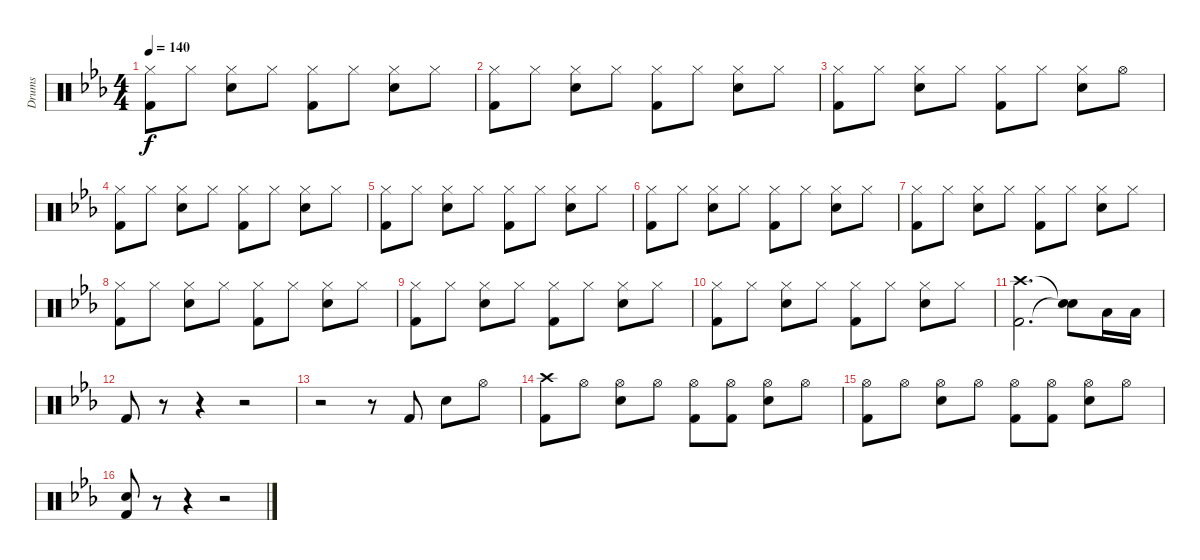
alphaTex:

\track ("Drums" "Drums") {instrument percussion}
\staff {score}
\articulation defaults
\ts (4 4)
\tempo 140
\clef neutral
\ks eb
("Hi-Hat (closed)" "Kick (hit) 2").8{dy f} "Hi-Hat (closed)".8 ("Hi-Hat (closed)" "Snare (hit) 2").8 "Hi-Hat (closed)".8 ("Hi-Hat (closed)" "Kick (hit) 2").8 "Hi-Hat (closed)".8 ("Hi-Hat (closed)" "Snare (hit) 2").8 "Hi-Hat (closed)".8 |
("Hi-Hat (closed)" "Kick (hit) 2").8 "Hi-Hat (closed)".8 ("Hi-Hat (closed)" "Snare (hit) 2").8 "Hi-Hat (closed)".8 ("Hi-Hat (closed)" "Kick (hit) 2").8 "Hi-Hat (closed)".8 ("Hi-Hat (closed)" "Snare (hit) 2").8 "Hi-Hat (closed)".8 |
("Hi-Hat (closed)" "Kick (hit) 2").8 "Hi-Hat (closed)".8 ("Hi-Hat (closed)" "Snare (hit) 2").8 "Hi-Hat (closed)".8 ("Hi-Hat (closed)" "Kick (hit) 2").8 "Hi-Hat (closed)".8 ("Hi-Hat (closed)" "Snare (hit) 2").8 "Hi-Hat (open)".8 |
("Hi-Hat (closed)" "Kick (hit) 2").8 "Hi-Hat (closed)".8 ("Hi-Hat (closed)" "Snare (hit) 2").8 "Hi-Hat (closed)".8 ("Hi-Hat (closed)" "Kick (hit) 2").8 "Hi-Hat (closed)".8 ("Hi-Hat (closed)" "Snare (hit) 2").8 "Hi-Hat (closed)".8 |
("Hi-Hat (closed)" "Kick (hit) 2").8 "Hi-Hat (closed)".8 ("Hi-Hat (closed)" "Snare (hit) 2").8 "Hi-Hat (closed)".8 ("Hi-Hat (closed)" "Kick (hit) 2").8 "Hi-Hat (closed)".8 ("Hi-Hat (closed)" "Snare (hit) 2").8 "Hi-Hat (closed)".8 |
("Hi-Hat (closed)" "Kick (hit) 2").8 "Hi-Hat (closed)".8 ("Hi-Hat (closed)" "Snare (hit) 2").8 "Hi-Hat (closed)".8 ("Hi-Hat (closed)" "Kick (hit) 2").8 "Hi-Hat (closed)".8 ("Hi-Hat (closed)" "Snare (hit) 2").8 "Hi-Hat (closed)".8 |
("Hi-Hat (closed)" "Kick (hit) 2").8 "Hi-Hat (closed)".8 ("Hi-Hat (closed)" "Snare (hit) 2").8 "Hi-Hat (closed)".8 ("Hi-Hat (closed)" "Kick (hit) 2").8 "Hi-Hat (closed)".8 ("Hi-Hat (closed)" "Snare (hit) 2").8 "Hi-Hat (closed)".8 |
("Hi-Hat (closed)" "Kick (hit) 2").8 "Hi-Hat (closed)".8 ("Hi-Hat (closed)" "Snare (hit) 2").8 "Hi-Hat (closed)".8 ("Hi-Hat (closed)" "Kick (hit) 2").8 "Hi-Hat (closed)".8 ("Hi-Hat (closed)" "Snare (hit) 2").8 "Hi-Hat (closed)".8 |
("Hi-Hat (closed)" "Kick (hit) 2").8 "Hi-Hat (closed)".8 ("Hi-Hat (closed)" "Snare (hit) 2").8 "Hi-Hat (closed)".8 ("Hi-Hat (closed)" "Kick (hit) 2").8 "Hi-Hat (closed)".8 ("Hi-Hat (closed)" "Snare (hit) 2").8 "Hi-Hat (closed)".8 |
("Hi-Hat (closed)" "Kick (hit) 2").8 "Hi-Hat (closed)".8 ("Hi-Hat (closed)" "Snare (hit) 2").8 "Hi-Hat (closed)".8 ("Hi-Hat (closed)" "Kick (hit) 2").8 "Hi-Hat (closed)".8 ("Hi-Hat (closed)" "Snare (hit) 2").8 "Hi-Hat (closed)".8 |
("Crash high (hit)" "Kick (hit) 2").2{d} ("Snare (hit)"{t} "Snare (hit)"{t}).8 "Low Floor Tom (hit)".16 "Low Floor Tom (hit)".16 |
"Kick (hit) 2".8 r.8 r.4 r.2 |
r.2 r.8 "Kick (hit) 2".8 "Snare (hit) 2".8 "Hi-Hat (open)".8 |
("Crash high (hit)" "Kick (hit) 2").8 "Hi-Hat (open)".8 ("Hi-Hat (open)" "Snare (hit) 2").8 "Hi-Hat (open)".8 ("Hi-Hat (open)" "Kick (hit) 2").8 ("Hi-Hat (open)" "Kick (hit) 2").8 ("Hi-Hat (open)" "Snare (hit) 2").8 "Hi-Hat (open)".8 |
("Hi-Hat (open)" "Kick (hit) 2").8 "Hi-Hat (open)".8 ("Hi-Hat (open)" "Snare (hit) 2").8 "Hi-Hat (open)".8 ("Hi-Hat (open)" "Kick (hit) 2").8 ("Hi-Hat (open)" "Kick (hit) 2").8 ("Hi-Hat (open)" "Snare (hit) 2").8 "Hi-Hat (open)".8 |
("Snare (hit) 2" "Kick (hit) 2").8 r.8 r.4 r.2
